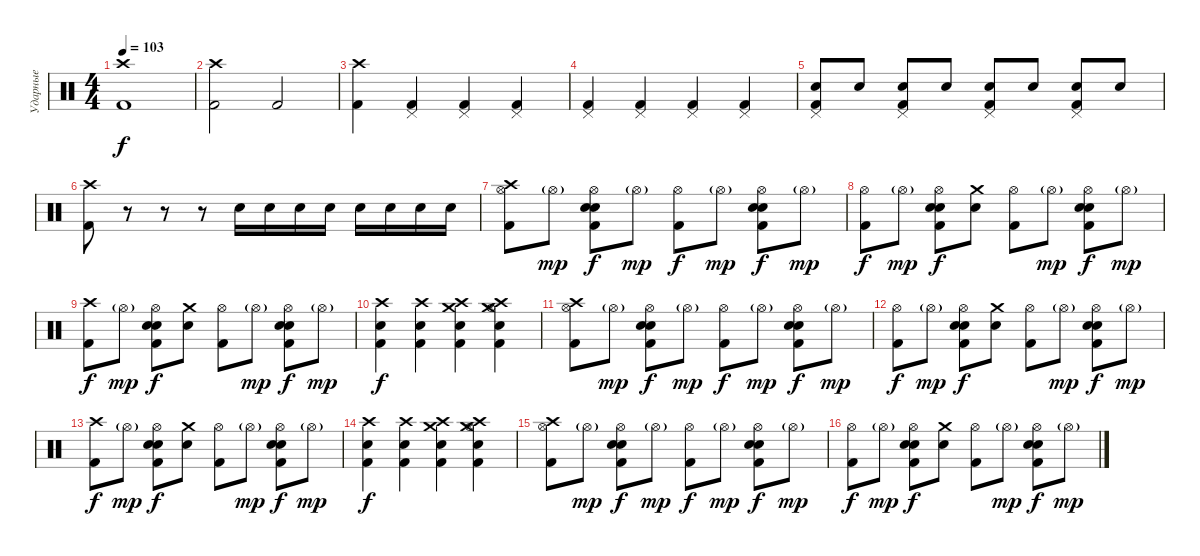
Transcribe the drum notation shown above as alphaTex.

\track ("Ударные" "Ударные") {instrument percussion}
\staff {score}
\articulation defaults
\ts (4 4)
\tempo 103
\clef neutral
\ks c
("Crash high (hit)" "Kick (hit) 2").1{dy f} |
("Crash high (hit)" "Kick (hit) 2").2 "Kick (hit) 2".2 |
("Crash high (hit)" "Kick (hit) 2").4 ("Pedal Hi-Hat (hit)" "Kick (hit) 2").4 ("Pedal Hi-Hat (hit)" "Kick (hit) 2").4 ("Pedal Hi-Hat (hit)" "Kick (hit) 2").4 |
("Pedal Hi-Hat (hit)" "Kick (hit) 2").4 ("Pedal Hi-Hat (hit)" "Kick (hit) 2").4 ("Pedal Hi-Hat (hit)" "Kick (hit) 2").4 ("Pedal Hi-Hat (hit)" "Kick (hit) 2").4 |
("Pedal Hi-Hat (hit)" "Snare (hit) 2" "Kick (hit) 2").8 "Snare (hit) 2".8 ("Pedal Hi-Hat (hit)" "Snare (hit) 2" "Kick (hit) 2").8 "Snare (hit) 2".8 ("Pedal Hi-Hat (hit)" "Snare (hit) 2" "Kick (hit) 2").8 "Snare (hit) 2".8 ("Pedal Hi-Hat (hit)" "Snare (hit) 2" "Kick (hit) 2").8 "Snare (hit) 2".8 |
("Crash high (hit)" "Kick (hit) 2").8 r.8 r.8 r.8 "Snare (hit) 2".16 "Snare (hit) 2".16 "Snare (hit) 2".16 "Snare (hit) 2".16 "Snare (hit) 2".16 "Snare (hit) 2".16 "Snare (hit) 2".16 "Snare (hit) 2".16 |
("Crash high (hit)" "Hi-Hat (open)" "Kick (hit) 2").8 "Hi-Hat (open)"{g}.8{dy mp} ("Hi-Hat (open)" "Snare (hit) 2" "Hand Clap (hit)" "Kick (hit) 2").8{dy f} "Hi-Hat (open)"{g}.8{dy mp} ("Hi-Hat (open)" "Kick (hit) 2").8{dy f} "Hi-Hat (open)"{g}.8{dy mp} ("Hi-Hat (open)" "Snare (hit) 2" "Hand Clap (hit)" "Kick (hit) 2").8{dy f} "Hi-Hat (open)"{g}.8{dy mp} |
("Hi-Hat (open)" "Kick (hit) 2").8{dy f} "Hi-Hat (open)"{g}.8{dy mp} ("Hi-Hat (open)" "Snare (hit) 2" "Hand Clap (hit)" "Kick (hit) 2").8{dy f} ("Crash medium (hit)" "Snare (hit) 2").8 ("Hi-Hat (open)" "Kick (hit) 2").8 "Hi-Hat (open)"{g}.8{dy mp} ("Hi-Hat (open)" "Snare (hit) 2" "Hand Clap (hit)" "Kick (hit) 2").8{dy f} "Hi-Hat (open)"{g}.8{dy mp} |
("Crash high (hit)" "Kick (hit) 2").8{dy f} "Hi-Hat (open)"{g}.8{dy mp} ("Hi-Hat (open)" "Snare (hit) 2" "Hand Clap (hit)" "Kick (hit) 2").8{dy f} ("Crash medium (hit)" "Snare (hit) 2").8 ("Hi-Hat (open)" "Kick (hit) 2").8 "Hi-Hat (open)"{g}.8{dy mp} ("Hi-Hat (open)" "Snare (hit) 2" "Hand Clap (hit)" "Kick (hit) 2").8{dy f} "Hi-Hat (open)"{g}.8{dy mp} |
("Crash high (hit)" "Snare (hit) 2" "Kick (hit) 2").4{dy f} ("Crash high (hit)" "Snare (hit) 2" "Kick (hit) 2").4 ("Crash medium (hit)" "Crash high (hit)" "Snare (hit) 2" "Kick (hit) 2").4 ("Crash medium (hit)" "Crash high (hit)" "Snare (hit) 2" "Hi-Hat (open)" "Kick (hit) 2").4 |
("Crash high (hit)" "Hi-Hat (open)" "Kick (hit) 2").8 "Hi-Hat (open)"{g}.8{dy mp} ("Hi-Hat (open)" "Snare (hit) 2" "Hand Clap (hit)" "Kick (hit) 2").8{dy f} "Hi-Hat (open)"{g}.8{dy mp} ("Hi-Hat (open)" "Kick (hit) 2").8{dy f} "Hi-Hat (open)"{g}.8{dy mp} ("Hi-Hat (open)" "Snare (hit) 2" "Hand Clap (hit)" "Kick (hit) 2").8{dy f} "Hi-Hat (open)"{g}.8{dy mp} |
("Hi-Hat (open)" "Kick (hit) 2").8{dy f} "Hi-Hat (open)"{g}.8{dy mp} ("Hi-Hat (open)" "Snare (hit) 2" "Hand Clap (hit)" "Kick (hit) 2").8{dy f} ("Crash medium (hit)" "Snare (hit) 2").8 ("Hi-Hat (open)" "Kick (hit) 2").8 "Hi-Hat (open)"{g}.8{dy mp} ("Hi-Hat (open)" "Snare (hit) 2" "Hand Clap (hit)" "Kick (hit) 2").8{dy f} "Hi-Hat (open)"{g}.8{dy mp} |
("Crash high (hit)" "Kick (hit) 2").8{dy f} "Hi-Hat (open)"{g}.8{dy mp} ("Hi-Hat (open)" "Snare (hit) 2" "Hand Clap (hit)" "Kick (hit) 2").8{dy f} ("Crash medium (hit)" "Snare (hit) 2").8 ("Hi-Hat (open)" "Kick (hit) 2").8 "Hi-Hat (open)"{g}.8{dy mp} ("Hi-Hat (open)" "Snare (hit) 2" "Hand Clap (hit)" "Kick (hit) 2").8{dy f} "Hi-Hat (open)"{g}.8{dy mp} |
("Crash high (hit)" "Snare (hit) 2" "Kick (hit) 2").4{dy f} ("Crash high (hit)" "Snare (hit) 2" "Kick (hit) 2").4 ("Crash medium (hit)" "Crash high (hit)" "Snare (hit) 2" "Kick (hit) 2").4 ("Crash medium (hit)" "Crash high (hit)" "Snare (hit) 2" "Hi-Hat (open)" "Kick (hit) 2").4 |
("Crash high (hit)" "Hi-Hat (open)" "Kick (hit) 2").8 "Hi-Hat (open)"{g}.8{dy mp} ("Hi-Hat (open)" "Snare (hit) 2" "Hand Clap (hit)" "Kick (hit) 2").8{dy f} "Hi-Hat (open)"{g}.8{dy mp} ("Hi-Hat (open)" "Kick (hit) 2").8{dy f} "Hi-Hat (open)"{g}.8{dy mp} ("Hi-Hat (open)" "Snare (hit) 2" "Hand Clap (hit)" "Kick (hit) 2").8{dy f} "Hi-Hat (open)"{g}.8{dy mp} |
("Hi-Hat (open)" "Kick (hit) 2").8{dy f} "Hi-Hat (open)"{g}.8{dy mp} ("Hi-Hat (open)" "Snare (hit) 2" "Hand Clap (hit)" "Kick (hit) 2").8{dy f} ("Crash medium (hit)" "Snare (hit) 2").8 ("Hi-Hat (open)" "Kick (hit) 2").8 "Hi-Hat (open)"{g}.8{dy mp} ("Hi-Hat (open)" "Snare (hit) 2" "Hand Clap (hit)" "Kick (hit) 2").8{dy f} "Hi-Hat (open)"{g}.8{dy mp}
